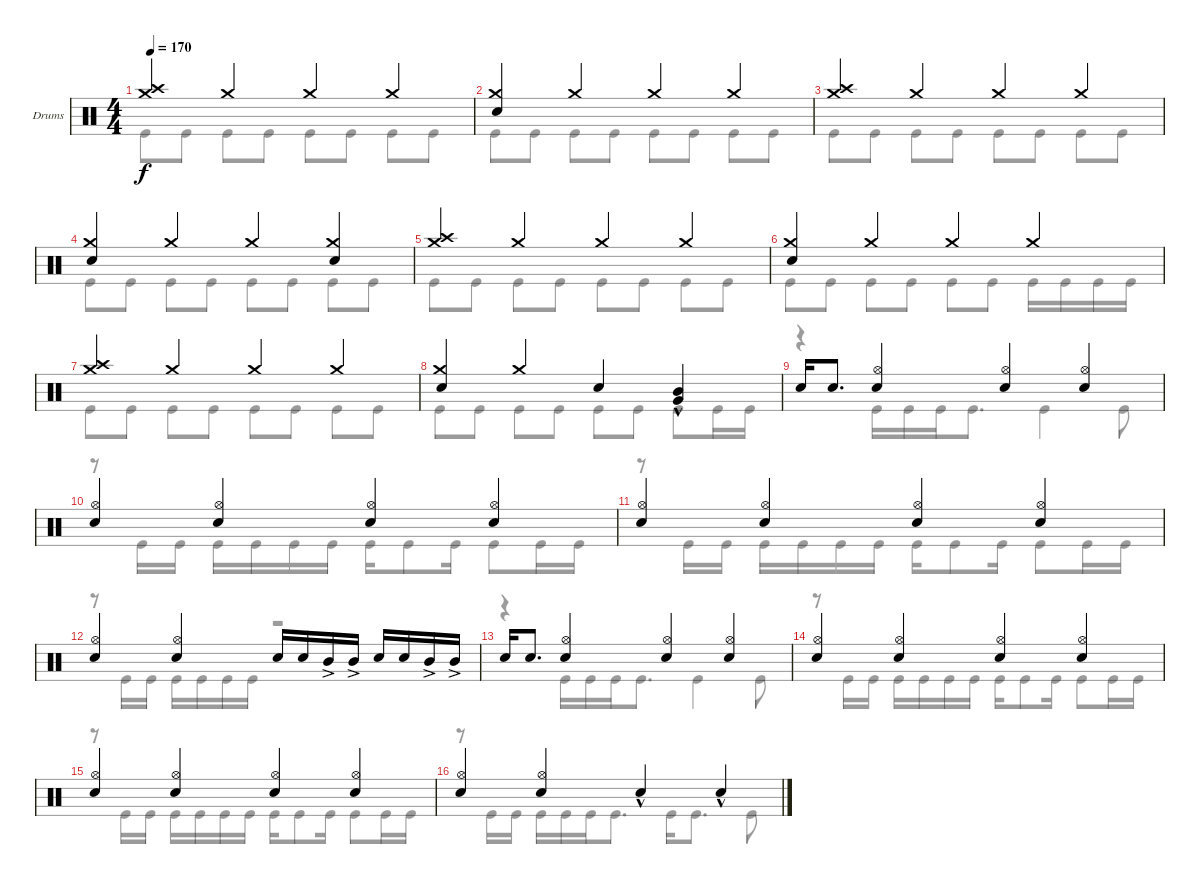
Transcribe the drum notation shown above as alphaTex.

\defaultSystemsLayout 4
\bracketExtendMode groupsimilarinstruments
\firstSystemTrackNameOrientation horizontal
\otherSystemsTrackNameOrientation horizontal
\track ("Drumkit" "Drums") {instrument percussion}
\staff {score}
\articulation defaults
\voice
\ts (4 4)
\tempo 170
\clef neutral
\ks c
("Crash high (hit)" "Crash medium (hit)").4{dy f} "Crash medium (hit)".4 "Crash medium (hit)".4 "Crash medium (hit)".4 |
("Crash medium (hit)" "Snare (hit) 2").4 "Crash medium (hit)".4 "Crash medium (hit)".4 "Crash medium (hit)".4 |
("Crash high (hit)" "Crash medium (hit)").4 "Crash medium (hit)".4 "Crash medium (hit)".4 "Crash medium (hit)".4 |
("Crash medium (hit)" "Snare (hit) 2").4 "Crash medium (hit)".4 "Crash medium (hit)".4 ("Crash medium (hit)" "Snare (hit) 2").4 |
("Crash medium (hit)" "Crash high (hit)").4 "Crash medium (hit)".4 "Crash medium (hit)".4 "Crash medium (hit)".4 |
("Crash medium (hit)" "Snare (hit) 2").4 "Crash medium (hit)".4 "Crash medium (hit)".4 "Crash medium (hit)".4 |
("Crash high (hit)" "Crash medium (hit)").4 "Crash medium (hit)".4 "Crash medium (hit)".4 "Crash medium (hit)".4 |
("Crash medium (hit)" "Snare (hit) 2").4 "Crash medium (hit)".4 "Snare (hit) 2".4 ("Mid Tom (hit)"{hac} "Very Low Tom (hit)"{hac}).4 |
"Snare (hit) 2".16 "Snare (hit) 2".8{d} ("Snare (hit) 2" "Hi-Hat (open)").4 ("Snare (hit) 2" "Hi-Hat (open)").4 ("Snare (hit) 2" "Hi-Hat (open)").4 |
("Snare (hit) 2" "Hi-Hat (open)").4 ("Snare (hit) 2" "Hi-Hat (open)").4 ("Snare (hit) 2" "Hi-Hat (open)").4 ("Snare (hit) 2" "Hi-Hat (open)").4 |
("Snare (hit) 2" "Hi-Hat (open)").4 ("Snare (hit) 2" "Hi-Hat (open)").4 ("Snare (hit) 2" "Hi-Hat (open)").4 ("Snare (hit) 2" "Hi-Hat (open)").4 |
("Snare (hit) 2" "Hi-Hat (open)").4 ("Snare (hit) 2" "Hi-Hat (open)").4 "Snare (hit) 2".16 "Snare (hit) 2".16 "Mid Tom (hit)"{ac}.16 "Mid Tom (hit)"{ac}.16 "Snare (hit) 2".16 "Snare (hit) 2".16 "Mid Tom (hit)"{ac}.16 "Mid Tom (hit)"{ac}.16 |
"Snare (hit) 2".16 "Snare (hit) 2".8{d} ("Snare (hit) 2" "Hi-Hat (open)").4 ("Snare (hit) 2" "Hi-Hat (open)").4 ("Snare (hit) 2" "Hi-Hat (open)").4 |
("Snare (hit) 2" "Hi-Hat (open)").4 ("Snare (hit) 2" "Hi-Hat (open)").4 ("Snare (hit) 2" "Hi-Hat (open)").4 ("Snare (hit) 2" "Hi-Hat (open)").4 |
("Snare (hit) 2" "Hi-Hat (open)").4 ("Snare (hit) 2" "Hi-Hat (open)").4 ("Snare (hit) 2" "Hi-Hat (open)").4 ("Snare (hit) 2" "Hi-Hat (open)").4 |
("Snare (hit) 2" "Hi-Hat (open)").4 ("Snare (hit) 2" "Hi-Hat (open)").4 "Snare (hit) 2"{hac}.4 "Snare (hit) 2"{hac}.4
\voice
\clef neutral
\ottava regular
\simile none
\ks c "Kick (hit)".8{dy f} "Kick (hit)".8 "Kick (hit)".8 "Kick (hit)".8 "Kick (hit)".8 "Kick (hit)".8 "Kick (hit)".8 "Kick (hit)".8
|
"Kick (hit)".8 "Kick (hit)".8 "Kick (hit)".8 "Kick (hit)".8 "Kick (hit)".8 "Kick (hit)".8 "Kick (hit)".8 "Kick (hit)".8 |
"Kick (hit)".8 "Kick (hit)".8 "Kick (hit)".8 "Kick (hit)".8 "Kick (hit)".8 "Kick (hit)".8 "Kick (hit)".8 "Kick (hit)".8 |
"Kick (hit)".8 "Kick (hit)".8 "Kick (hit)".8 "Kick (hit)".8 "Kick (hit)".8 "Kick (hit)".8 "Kick (hit)".8 "Kick (hit)".8 |
"Kick (hit)".8 "Kick (hit)".8 "Kick (hit)".8 "Kick (hit)".8 "Kick (hit)".8 "Kick (hit)".8 "Kick (hit)".8 "Kick (hit)".8 |
"Kick (hit)".8 "Kick (hit)".8 "Kick (hit)".8 "Kick (hit)".8 "Kick (hit)".8 "Kick (hit)".8 "Kick (hit)".16 "Kick (hit)".16 "Kick (hit)".16 "Kick (hit)".16 |
"Kick (hit)".8 "Kick (hit)".8 "Kick (hit)".8 "Kick (hit)".8 "Kick (hit)".8 "Kick (hit)".8 "Kick (hit)".8 "Kick (hit)".8 |
"Kick (hit)".8 "Kick (hit)".8 "Kick (hit)".8 "Kick (hit)".8 "Kick (hit)".8 "Kick (hit)".8 "Kick (hit)".8 "Kick (hit)".16 "Kick (hit)".16 |
r.4 "Kick (hit)".16 "Kick (hit)".16 "Kick (hit)".16 "Kick (hit)".8{d} "Kick (hit)".4 "Kick (hit)".8 |
r.8 "Kick (hit)".16 "Kick (hit)".16 "Kick (hit)".16 "Kick (hit)".16 "Kick (hit)".16 "Kick (hit)".16 "Kick (hit)".16 "Kick (hit)".8 "Kick (hit)".16 "Kick (hit)".8 "Kick (hit)".16 "Kick (hit)".16 |
r.8 "Kick (hit)".16 "Kick (hit)".16 "Kick (hit)".16 "Kick (hit)".16 "Kick (hit)".16 "Kick (hit)".16 "Kick (hit)".16 "Kick (hit)".8 "Kick (hit)".16 "Kick (hit)".8 "Kick (hit)".16 "Kick (hit)".16 |
r.8 "Kick (hit)".16 "Kick (hit)".16 "Kick (hit)".16 "Kick (hit)".16 "Kick (hit)".16 "Kick (hit)".16 r.2 |
r.4 "Kick (hit)".16 "Kick (hit)".16 "Kick (hit)".16 "Kick (hit)".8{d} "Kick (hit)".4 "Kick (hit)".8 |
r.8 "Kick (hit)".16 "Kick (hit)".16 "Kick (hit)".16 "Kick (hit)".16 "Kick (hit)".16 "Kick (hit)".16 "Kick (hit)".16 "Kick (hit)".8 "Kick (hit)".16 "Kick (hit)".8 "Kick (hit)".16 "Kick (hit)".16 |
r.8 "Kick (hit)".16 "Kick (hit)".16 "Kick (hit)".16 "Kick (hit)".16 "Kick (hit)".16 "Kick (hit)".16 "Kick (hit)".16 "Kick (hit)".8 "Kick (hit)".16 "Kick (hit)".8 "Kick (hit)".16 "Kick (hit)".16 |
r.8 "Kick (hit)".16 "Kick (hit)".16 "Kick (hit)".16 "Kick (hit)".16 "Kick (hit)".16 "Kick (hit)".8{d} "Kick (hit)".16 "Kick (hit)".8{d} "Kick (hit)".8
